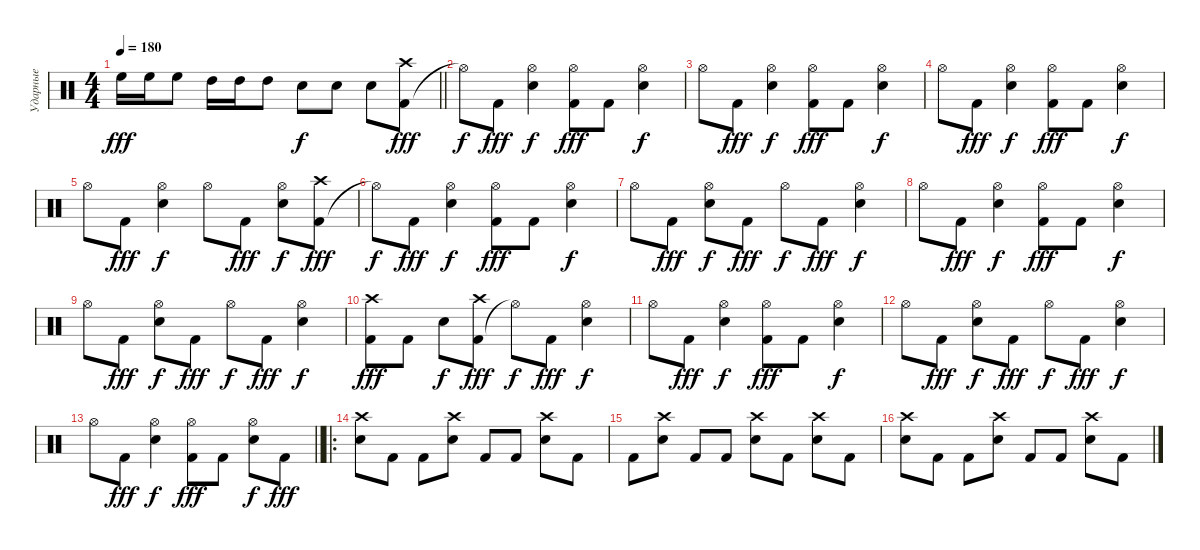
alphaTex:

\track ("Ударные" "Ударные") {instrument percussion}
\staff
\articulation defaults
\ts (4 4)
\tempo 180
\clef neutral
\barLineRight lightlight
\ks c "High Floor Tom (hit)".16{dy fff} "High Floor Tom (hit)".16 "High Floor Tom (hit)".8 "High Tom (hit)".16 "High Tom (hit)".16 "High Tom (hit)".8 "Electric Snare (hit)".8{dy f} "Electric Snare (hit)".8 "Electric Snare (hit)".8
("Kick (hit) 2" "Crash high (hit)").8{dy fff} |
"Hi-Hat (open)"{t}.8{dy f} "Kick (hit) 2".8{dy fff} ("Snare (hit) 2" "Hi-Hat (open)").4{dy f} ("Kick (hit) 2" "Hi-Hat (open)").8{dy fff} "Kick (hit) 2".8 ("Snare (hit) 2" "Hi-Hat (open)").4{dy f} |
"Hi-Hat (open)".8 "Kick (hit) 2".8{dy fff} ("Snare (hit) 2" "Hi-Hat (open)").4{dy f} ("Kick (hit) 2" "Hi-Hat (open)").8{dy fff} "Kick (hit) 2".8 ("Snare (hit) 2" "Hi-Hat (open)").4{dy f} |
"Hi-Hat (open)".8 "Kick (hit) 2".8{dy fff} ("Snare (hit) 2" "Hi-Hat (open)").4{dy f} ("Kick (hit) 2" "Hi-Hat (open)").8{dy fff} "Kick (hit) 2".8 ("Snare (hit) 2" "Hi-Hat (open)").4{dy f} |
"Hi-Hat (open)".8 "Kick (hit) 2".8{dy fff} ("Snare (hit) 2" "Hi-Hat (open)").4{dy f} "Hi-Hat (open)".8 "Kick (hit) 2".8{dy fff} ("Snare (hit) 2" "Hi-Hat (open)").8{dy f} ("Kick (hit) 2" "Crash high (hit)").8{dy fff} |
"Hi-Hat (open)"{t}.8{dy f} "Kick (hit) 2".8{dy fff} ("Snare (hit) 2" "Hi-Hat (open)").4{dy f} ("Kick (hit) 2" "Hi-Hat (open)").8{dy fff} "Kick (hit) 2".8 ("Snare (hit) 2" "Hi-Hat (open)").4{dy f} |
"Hi-Hat (open)".8 "Kick (hit) 2".8{dy fff} ("Snare (hit) 2" "Hi-Hat (open)").8{dy f} "Kick (hit) 2".8{dy fff} "Hi-Hat (open)".8{dy f} "Kick (hit) 2".8{dy fff} ("Snare (hit) 2" "Hi-Hat (open)").4{dy f} |
"Hi-Hat (open)".8 "Kick (hit) 2".8{dy fff} ("Snare (hit) 2" "Hi-Hat (open)").4{dy f} ("Kick (hit) 2" "Hi-Hat (open)").8{dy fff} "Kick (hit) 2".8 ("Snare (hit) 2" "Hi-Hat (open)").4{dy f} |
"Hi-Hat (open)".8 "Kick (hit) 2".8{dy fff} ("Snare (hit) 2" "Hi-Hat (open)").8{dy f} "Kick (hit) 2".8{dy fff} "Hi-Hat (open)".8{dy f} "Kick (hit) 2".8{dy fff} ("Snare (hit) 2" "Hi-Hat (open)").4{dy f} |
("Kick (hit) 2" "Crash high (hit)").8{dy fff} "Kick (hit) 2".8 "Snare (hit) 2".8{dy f} ("Kick (hit) 2" "Crash high (hit)").8{dy fff} "Hi-Hat (open)"{t}.8{dy f} "Kick (hit) 2".8{dy fff} ("Snare (hit) 2" "Hi-Hat (open)").4{dy f} |
"Hi-Hat (open)".8 "Kick (hit) 2".8{dy fff} ("Snare (hit) 2" "Hi-Hat (open)").4{dy f} ("Kick (hit) 2" "Hi-Hat (open)").8{dy fff} "Kick (hit) 2".8 ("Snare (hit) 2" "Hi-Hat (open)").4{dy f} |
"Hi-Hat (open)".8 "Kick (hit) 2".8{dy fff} ("Snare (hit) 2" "Hi-Hat (open)").8{dy f} "Kick (hit) 2".8{dy fff} "Hi-Hat (open)".8{dy f} "Kick (hit) 2".8{dy fff} ("Snare (hit) 2" "Hi-Hat (open)").4{dy f} |
\barLineRight lightlight "Hi-Hat (open)".8 "Kick (hit) 2".8{dy fff}
("Snare (hit) 2" "Hi-Hat (open)").4{dy f} ("Kick (hit) 2" "Hi-Hat (open)").8{dy fff} "Kick (hit) 2".8 ("Snare (hit) 2" "Hi-Hat (open)").8{dy f} "Kick (hit) 2".8{dy fff} |
\ro
("Snare (hit) 2" "Crash high (hit)").8 "Kick (hit) 2".8 "Kick (hit) 2".8 ("Snare (hit) 2" "Crash high (hit)").8 "Kick (hit) 2".8 "Kick (hit) 2".8 ("Snare (hit) 2" "Crash high (hit)").8 "Kick (hit) 2".8 |
"Kick (hit) 2".8 ("Snare (hit) 2" "Crash high (hit)").8 "Kick (hit) 2".8 "Kick (hit) 2".8 ("Snare (hit) 2" "Crash high (hit)").8 "Kick (hit) 2".8 ("Snare (hit) 2" "Crash high (hit)").8 "Kick (hit) 2".8 |
("Snare (hit) 2" "Crash high (hit)").8 "Kick (hit) 2".8 "Kick (hit) 2".8 ("Snare (hit) 2" "Crash high (hit)").8 "Kick (hit) 2".8 "Kick (hit) 2".8 ("Snare (hit) 2" "Crash high (hit)").8 "Kick (hit) 2".8
